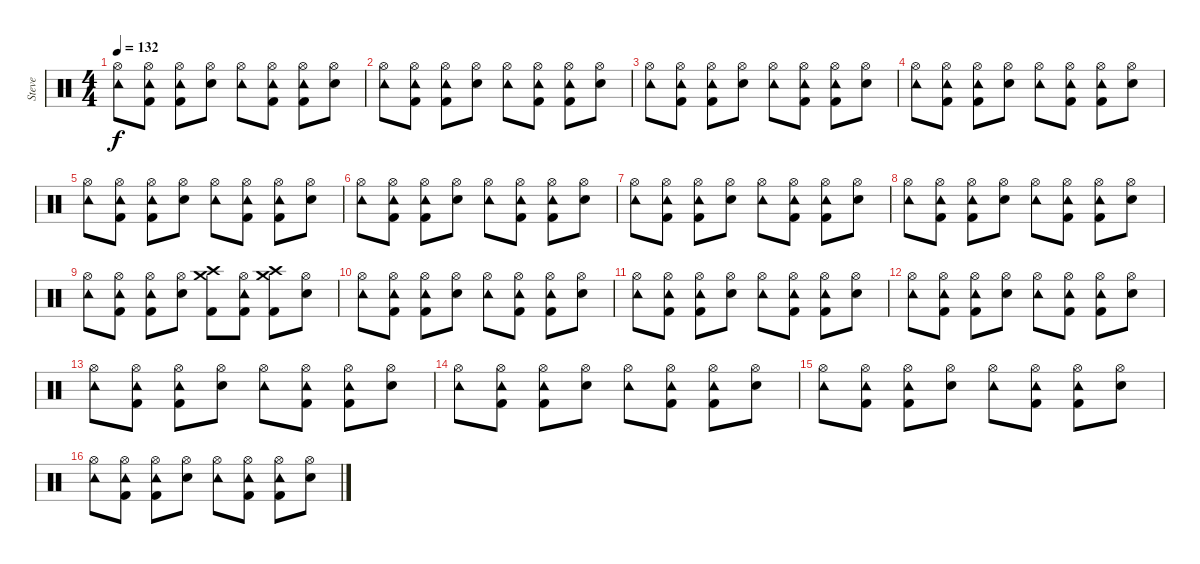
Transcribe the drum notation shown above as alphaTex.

\track ("Steve" "Steve") {instrument percussion}
\staff {score}
\articulation defaults
\ts (4 4)
\tempo 132
\clef neutral
\ks c
("Hi-Hat (open)" "Tambourine (hit)").8{dy f} ("Hi-Hat (open)" "Tambourine (hit)" "Kick (hit) 2").8 ("Hi-Hat (open)" "Tambourine (hit)" "Kick (hit) 2").8 ("Hi-Hat (open)" "Snare (hit) 2").8 ("Hi-Hat (open)" "Tambourine (hit)").8 ("Hi-Hat (open)" "Tambourine (hit)" "Kick (hit) 2").8 ("Hi-Hat (open)" "Tambourine (hit)" "Kick (hit) 2").8 ("Hi-Hat (open)" "Snare (hit) 2").8 |
("Hi-Hat (open)" "Tambourine (hit)").8 ("Hi-Hat (open)" "Tambourine (hit)" "Kick (hit) 2").8 ("Hi-Hat (open)" "Tambourine (hit)" "Kick (hit) 2").8 ("Hi-Hat (open)" "Snare (hit) 2").8 ("Hi-Hat (open)" "Tambourine (hit)").8 ("Hi-Hat (open)" "Tambourine (hit)" "Kick (hit) 2").8 ("Hi-Hat (open)" "Tambourine (hit)" "Kick (hit) 2").8 ("Hi-Hat (open)" "Snare (hit) 2").8 |
("Hi-Hat (open)" "Tambourine (hit)").8 ("Hi-Hat (open)" "Tambourine (hit)" "Kick (hit) 2").8 ("Hi-Hat (open)" "Tambourine (hit)" "Kick (hit) 2").8 ("Hi-Hat (open)" "Snare (hit) 2").8 ("Hi-Hat (open)" "Tambourine (hit)").8 ("Hi-Hat (open)" "Tambourine (hit)" "Kick (hit) 2").8 ("Hi-Hat (open)" "Tambourine (hit)" "Kick (hit) 2").8 ("Hi-Hat (open)" "Snare (hit) 2").8 |
("Hi-Hat (open)" "Tambourine (hit)").8 ("Hi-Hat (open)" "Tambourine (hit)" "Kick (hit) 2").8 ("Hi-Hat (open)" "Tambourine (hit)" "Kick (hit) 2").8 ("Hi-Hat (open)" "Snare (hit) 2").8 ("Hi-Hat (open)" "Tambourine (hit)").8 ("Hi-Hat (open)" "Tambourine (hit)" "Kick (hit) 2").8 ("Hi-Hat (open)" "Tambourine (hit)" "Kick (hit) 2").8 ("Hi-Hat (open)" "Snare (hit) 2").8 |
("Hi-Hat (open)" "Tambourine (hit)").8 ("Hi-Hat (open)" "Tambourine (hit)" "Kick (hit) 2").8 ("Hi-Hat (open)" "Tambourine (hit)" "Kick (hit) 2").8 ("Hi-Hat (open)" "Snare (hit) 2").8 ("Hi-Hat (open)" "Tambourine (hit)").8 ("Hi-Hat (open)" "Tambourine (hit)" "Kick (hit) 2").8 ("Hi-Hat (open)" "Tambourine (hit)" "Kick (hit) 2").8 ("Hi-Hat (open)" "Snare (hit) 2").8 |
("Hi-Hat (open)" "Tambourine (hit)").8 ("Hi-Hat (open)" "Tambourine (hit)" "Kick (hit) 2").8 ("Hi-Hat (open)" "Tambourine (hit)" "Kick (hit) 2").8 ("Hi-Hat (open)" "Snare (hit) 2").8 ("Hi-Hat (open)" "Tambourine (hit)").8 ("Hi-Hat (open)" "Tambourine (hit)" "Kick (hit) 2").8 ("Hi-Hat (open)" "Tambourine (hit)" "Kick (hit) 2").8 ("Hi-Hat (open)" "Snare (hit) 2").8 |
("Hi-Hat (open)" "Tambourine (hit)").8 ("Hi-Hat (open)" "Tambourine (hit)" "Kick (hit) 2").8 ("Hi-Hat (open)" "Tambourine (hit)" "Kick (hit) 2").8 ("Hi-Hat (open)" "Snare (hit) 2").8 ("Hi-Hat (open)" "Tambourine (hit)").8 ("Hi-Hat (open)" "Tambourine (hit)" "Kick (hit) 2").8 ("Hi-Hat (open)" "Tambourine (hit)" "Kick (hit) 2").8 ("Hi-Hat (open)" "Snare (hit) 2").8 |
("Hi-Hat (open)" "Tambourine (hit)").8 ("Hi-Hat (open)" "Tambourine (hit)" "Kick (hit) 2").8 ("Hi-Hat (open)" "Tambourine (hit)" "Kick (hit) 2").8 ("Hi-Hat (open)" "Snare (hit) 2").8 ("Hi-Hat (open)" "Tambourine (hit)").8 ("Hi-Hat (open)" "Tambourine (hit)" "Kick (hit) 2").8 ("Hi-Hat (open)" "Tambourine (hit)" "Kick (hit) 2").8 ("Hi-Hat (open)" "Snare (hit) 2").8 |
("Hi-Hat (open)" "Tambourine (hit)").8 ("Hi-Hat (open)" "Tambourine (hit)" "Kick (hit) 2").8 ("Hi-Hat (open)" "Tambourine (hit)" "Kick (hit) 2").8 ("Hi-Hat (open)" "Snare (hit) 2").8 ("Crash high (hit)" "Crash medium (hit)" "Kick (hit) 2").8 ("Hi-Hat (open)" "Tambourine (hit)" "Kick (hit) 2").8 ("Crash high (hit)" "Crash medium (hit)" "Kick (hit) 2").8 ("Hi-Hat (open)" "Snare (hit) 2").8 |
("Hi-Hat (open)" "Tambourine (hit)").8 ("Hi-Hat (open)" "Tambourine (hit)" "Kick (hit) 2").8 ("Hi-Hat (open)" "Tambourine (hit)" "Kick (hit) 2").8 ("Hi-Hat (open)" "Snare (hit) 2").8 ("Hi-Hat (open)" "Tambourine (hit)").8 ("Hi-Hat (open)" "Tambourine (hit)" "Kick (hit) 2").8 ("Hi-Hat (open)" "Tambourine (hit)" "Kick (hit) 2").8 ("Hi-Hat (open)" "Snare (hit) 2").8 |
("Hi-Hat (open)" "Tambourine (hit)").8 ("Hi-Hat (open)" "Tambourine (hit)" "Kick (hit) 2").8 ("Hi-Hat (open)" "Tambourine (hit)" "Kick (hit) 2").8 ("Hi-Hat (open)" "Snare (hit) 2").8 ("Hi-Hat (open)" "Tambourine (hit)").8 ("Hi-Hat (open)" "Tambourine (hit)" "Kick (hit) 2").8 ("Hi-Hat (open)" "Tambourine (hit)" "Kick (hit) 2").8 ("Hi-Hat (open)" "Snare (hit) 2").8 |
("Hi-Hat (open)" "Tambourine (hit)").8 ("Hi-Hat (open)" "Tambourine (hit)" "Kick (hit) 2").8 ("Hi-Hat (open)" "Tambourine (hit)" "Kick (hit) 2").8 ("Hi-Hat (open)" "Snare (hit) 2").8 ("Hi-Hat (open)" "Tambourine (hit)").8 ("Hi-Hat (open)" "Tambourine (hit)" "Kick (hit) 2").8 ("Hi-Hat (open)" "Tambourine (hit)" "Kick (hit) 2").8 ("Hi-Hat (open)" "Snare (hit) 2").8 |
("Hi-Hat (open)" "Tambourine (hit)").8 ("Hi-Hat (open)" "Tambourine (hit)" "Kick (hit) 2").8 ("Hi-Hat (open)" "Tambourine (hit)" "Kick (hit) 2").8 ("Hi-Hat (open)" "Snare (hit) 2").8 ("Hi-Hat (open)" "Tambourine (hit)").8 ("Hi-Hat (open)" "Tambourine (hit)" "Kick (hit) 2").8 ("Hi-Hat (open)" "Tambourine (hit)" "Kick (hit) 2").8 ("Hi-Hat (open)" "Snare (hit) 2").8 |
("Hi-Hat (open)" "Tambourine (hit)").8 ("Hi-Hat (open)" "Tambourine (hit)" "Kick (hit) 2").8 ("Hi-Hat (open)" "Tambourine (hit)" "Kick (hit) 2").8 ("Hi-Hat (open)" "Snare (hit) 2").8 ("Hi-Hat (open)" "Tambourine (hit)").8 ("Hi-Hat (open)" "Tambourine (hit)" "Kick (hit) 2").8 ("Hi-Hat (open)" "Tambourine (hit)" "Kick (hit) 2").8 ("Hi-Hat (open)" "Snare (hit) 2").8 |
("Hi-Hat (open)" "Tambourine (hit)").8 ("Hi-Hat (open)" "Tambourine (hit)" "Kick (hit) 2").8 ("Hi-Hat (open)" "Tambourine (hit)" "Kick (hit) 2").8 ("Hi-Hat (open)" "Snare (hit) 2").8 ("Hi-Hat (open)" "Tambourine (hit)").8 ("Hi-Hat (open)" "Tambourine (hit)" "Kick (hit) 2").8 ("Hi-Hat (open)" "Tambourine (hit)" "Kick (hit) 2").8 ("Hi-Hat (open)" "Snare (hit) 2").8 |
("Hi-Hat (open)" "Tambourine (hit)").8 ("Hi-Hat (open)" "Tambourine (hit)" "Kick (hit) 2").8 ("Hi-Hat (open)" "Tambourine (hit)" "Kick (hit) 2").8 ("Hi-Hat (open)" "Snare (hit) 2").8 ("Hi-Hat (open)" "Tambourine (hit)").8 ("Hi-Hat (open)" "Tambourine (hit)" "Kick (hit) 2").8 ("Hi-Hat (open)" "Tambourine (hit)" "Kick (hit) 2").8 ("Hi-Hat (open)" "Snare (hit) 2").8
